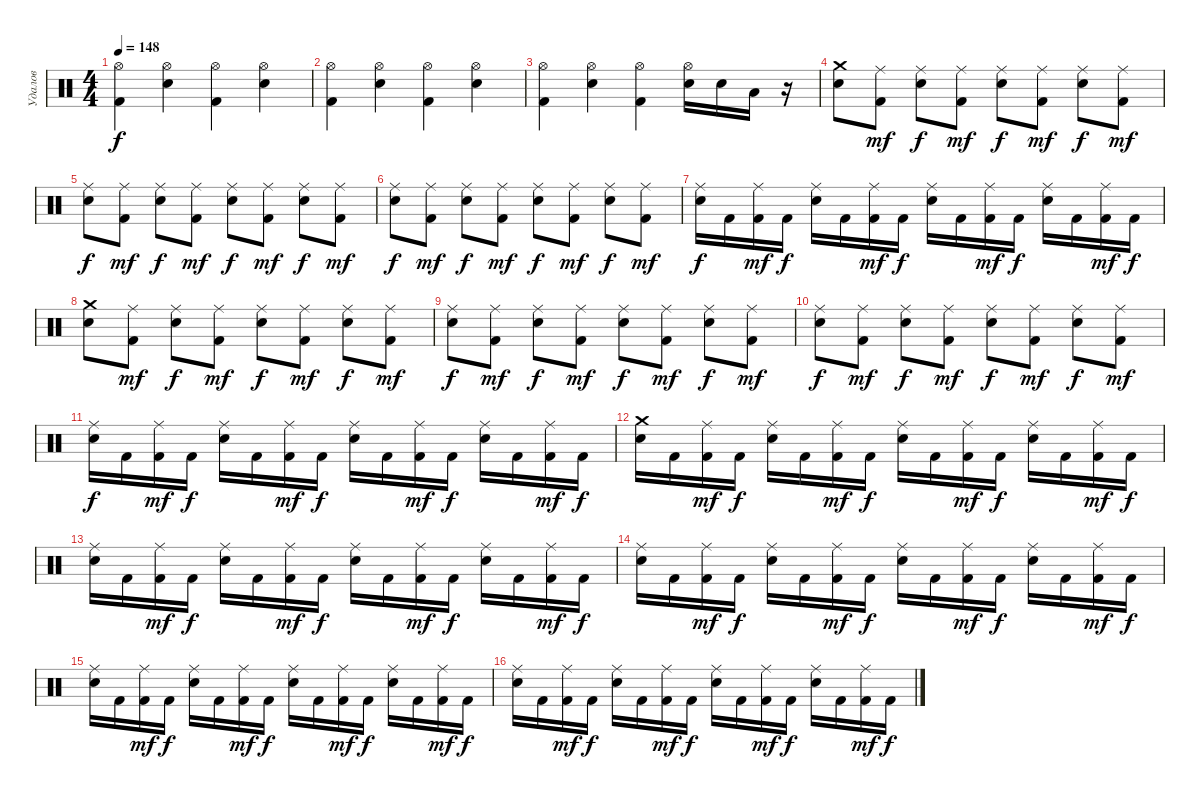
\track ("Удалов" "Удалов") {instrument percussion}
\staff {score}
\articulation defaults
\ts (4 4)
\tempo 148
\clef neutral
\ks c
("Kick (hit) 2" "Hi-Hat (open)").4{dy f} ("Snare (hit) 2" "Hi-Hat (open)").4 ("Kick (hit) 2" "Hi-Hat (open)").4 ("Snare (hit) 2" "Hi-Hat (open)").4 |
("Kick (hit) 2" "Hi-Hat (open)").4 ("Snare (hit) 2" "Hi-Hat (open)").4 ("Kick (hit) 2" "Hi-Hat (open)").4 ("Snare (hit) 2" "Hi-Hat (open)").4 |
("Kick (hit) 2" "Hi-Hat (open)").4 ("Snare (hit) 2" "Hi-Hat (open)").4 ("Kick (hit) 2" "Hi-Hat (open)").4 ("Snare (hit) 2" "Hi-Hat (open)").16 "Snare (hit) 2".16 "Low Tom (hit)".16 r.16 |
("Snare (hit) 2" "Crash medium (hit)").8 ("Ride (middle)" "Kick (hit) 2").8{dy mf} ("Ride (middle)" "Snare (hit) 2").8{dy f} ("Ride (middle)" "Kick (hit) 2").8{dy mf} ("Ride (middle)" "Snare (hit) 2").8{dy f} ("Ride (middle)" "Kick (hit) 2").8{dy mf} ("Ride (middle)" "Snare (hit) 2").8{dy f} ("Ride (middle)" "Kick (hit) 2").8{dy mf} |
("Snare (hit) 2" "Ride (middle)").8{dy f} ("Ride (middle)" "Kick (hit) 2").8{dy mf} ("Ride (middle)" "Snare (hit) 2").8{dy f} ("Ride (middle)" "Kick (hit) 2").8{dy mf} ("Ride (middle)" "Snare (hit) 2").8{dy f} ("Ride (middle)" "Kick (hit) 2").8{dy mf} ("Ride (middle)" "Snare (hit) 2").8{dy f} ("Ride (middle)" "Kick (hit) 2").8{dy mf} |
("Snare (hit) 2" "Ride (middle)").8{dy f} ("Ride (middle)" "Kick (hit) 2").8{dy mf} ("Ride (middle)" "Snare (hit) 2").8{dy f} ("Ride (middle)" "Kick (hit) 2").8{dy mf} ("Ride (middle)" "Snare (hit) 2").8{dy f} ("Ride (middle)" "Kick (hit) 2").8{dy mf} ("Ride (middle)" "Snare (hit) 2").8{dy f} ("Ride (middle)" "Kick (hit) 2").8{dy mf} |
("Snare (hit) 2" "Ride (middle)").16{dy f} "Kick (hit) 2".16 ("Ride (middle)" "Kick (hit) 2").16{dy mf} "Kick (hit) 2".16{dy f} ("Ride (middle)" "Snare (hit) 2").16 "Kick (hit) 2".16 ("Ride (middle)" "Kick (hit) 2").16{dy mf} "Kick (hit) 2".16{dy f} ("Ride (middle)" "Snare (hit) 2").16 "Kick (hit) 2".16 ("Ride (middle)" "Kick (hit) 2").16{dy mf} "Kick (hit) 2".16{dy f} ("Ride (middle)" "Snare (hit) 2").16 "Kick (hit) 2".16 ("Ride (middle)" "Kick (hit) 2").16{dy mf} "Kick (hit) 2".16{dy f} |
("Snare (hit) 2" "Crash medium (hit)").8 ("Ride (middle)" "Kick (hit) 2").8{dy mf} ("Ride (middle)" "Snare (hit) 2").8{dy f} ("Ride (middle)" "Kick (hit) 2").8{dy mf} ("Ride (middle)" "Snare (hit) 2").8{dy f} ("Ride (middle)" "Kick (hit) 2").8{dy mf} ("Ride (middle)" "Snare (hit) 2").8{dy f} ("Ride (middle)" "Kick (hit) 2").8{dy mf} |
("Snare (hit) 2" "Ride (middle)").8{dy f} ("Ride (middle)" "Kick (hit) 2").8{dy mf} ("Ride (middle)" "Snare (hit) 2").8{dy f} ("Ride (middle)" "Kick (hit) 2").8{dy mf} ("Ride (middle)" "Snare (hit) 2").8{dy f} ("Ride (middle)" "Kick (hit) 2").8{dy mf} ("Ride (middle)" "Snare (hit) 2").8{dy f} ("Ride (middle)" "Kick (hit) 2").8{dy mf} |
("Snare (hit) 2" "Ride (middle)").8{dy f} ("Ride (middle)" "Kick (hit) 2").8{dy mf} ("Ride (middle)" "Snare (hit) 2").8{dy f} ("Ride (middle)" "Kick (hit) 2").8{dy mf} ("Ride (middle)" "Snare (hit) 2").8{dy f} ("Ride (middle)" "Kick (hit) 2").8{dy mf} ("Ride (middle)" "Snare (hit) 2").8{dy f} ("Ride (middle)" "Kick (hit) 2").8{dy mf} |
("Snare (hit) 2" "Ride (middle)").16{dy f} "Kick (hit) 2".16 ("Ride (middle)" "Kick (hit) 2").16{dy mf} "Kick (hit) 2".16{dy f} ("Ride (middle)" "Snare (hit) 2").16 "Kick (hit) 2".16 ("Ride (middle)" "Kick (hit) 2").16{dy mf} "Kick (hit) 2".16{dy f} ("Ride (middle)" "Snare (hit) 2").16 "Kick (hit) 2".16 ("Ride (middle)" "Kick (hit) 2").16{dy mf} "Kick (hit) 2".16{dy f} ("Ride (middle)" "Snare (hit) 2").16 "Kick (hit) 2".16 ("Ride (middle)" "Kick (hit) 2").16{dy mf} "Kick (hit) 2".16{dy f} |
("Snare (hit) 2" "Crash medium (hit)").16 "Kick (hit) 2".16 ("Ride (middle)" "Kick (hit) 2").16{dy mf} "Kick (hit) 2".16{dy f} ("Ride (middle)" "Snare (hit) 2").16 "Kick (hit) 2".16 ("Ride (middle)" "Kick (hit) 2").16{dy mf} "Kick (hit) 2".16{dy f} ("Ride (middle)" "Snare (hit) 2").16 "Kick (hit) 2".16 ("Ride (middle)" "Kick (hit) 2").16{dy mf} "Kick (hit) 2".16{dy f} ("Ride (middle)" "Snare (hit) 2").16 "Kick (hit) 2".16 ("Ride (middle)" "Kick (hit) 2").16{dy mf} "Kick (hit) 2".16{dy f} |
("Snare (hit) 2" "Ride (middle)").16 "Kick (hit) 2".16 ("Ride (middle)" "Kick (hit) 2").16{dy mf} "Kick (hit) 2".16{dy f} ("Ride (middle)" "Snare (hit) 2").16 "Kick (hit) 2".16 ("Ride (middle)" "Kick (hit) 2").16{dy mf} "Kick (hit) 2".16{dy f} ("Ride (middle)" "Snare (hit) 2").16 "Kick (hit) 2".16 ("Ride (middle)" "Kick (hit) 2").16{dy mf} "Kick (hit) 2".16{dy f} ("Ride (middle)" "Snare (hit) 2").16 "Kick (hit) 2".16 ("Ride (middle)" "Kick (hit) 2").16{dy mf} "Kick (hit) 2".16{dy f} |
("Snare (hit) 2" "Ride (middle)").16 "Kick (hit) 2".16 ("Ride (middle)" "Kick (hit) 2").16{dy mf} "Kick (hit) 2".16{dy f} ("Ride (middle)" "Snare (hit) 2").16 "Kick (hit) 2".16 ("Ride (middle)" "Kick (hit) 2").16{dy mf} "Kick (hit) 2".16{dy f} ("Ride (middle)" "Snare (hit) 2").16 "Kick (hit) 2".16 ("Ride (middle)" "Kick (hit) 2").16{dy mf} "Kick (hit) 2".16{dy f} ("Ride (middle)" "Snare (hit) 2").16 "Kick (hit) 2".16 ("Ride (middle)" "Kick (hit) 2").16{dy mf} "Kick (hit) 2".16{dy f} |
("Snare (hit) 2" "Ride (middle)").16 "Kick (hit) 2".16 ("Ride (middle)" "Kick (hit) 2").16{dy mf} "Kick (hit) 2".16{dy f} ("Ride (middle)" "Snare (hit) 2").16 "Kick (hit) 2".16 ("Ride (middle)" "Kick (hit) 2").16{dy mf} "Kick (hit) 2".16{dy f} ("Ride (middle)" "Snare (hit) 2").16 "Kick (hit) 2".16 ("Ride (middle)" "Kick (hit) 2").16{dy mf} "Kick (hit) 2".16{dy f} ("Ride (middle)" "Snare (hit) 2").16 "Kick (hit) 2".16 ("Ride (middle)" "Kick (hit) 2").16{dy mf} "Kick (hit) 2".16{dy f} |
("Snare (hit) 2" "Ride (middle)").16 "Kick (hit) 2".16 ("Ride (middle)" "Kick (hit) 2").16{dy mf} "Kick (hit) 2".16{dy f} ("Ride (middle)" "Snare (hit) 2").16 "Kick (hit) 2".16 ("Ride (middle)" "Kick (hit) 2").16{dy mf} "Kick (hit) 2".16{dy f} ("Ride (middle)" "Snare (hit) 2").16 "Kick (hit) 2".16 ("Ride (middle)" "Kick (hit) 2").16{dy mf} "Kick (hit) 2".16{dy f} ("Ride (middle)" "Snare (hit) 2").16 "Kick (hit) 2".16 ("Ride (middle)" "Kick (hit) 2").16{dy mf} "Kick (hit) 2".16{dy f}
